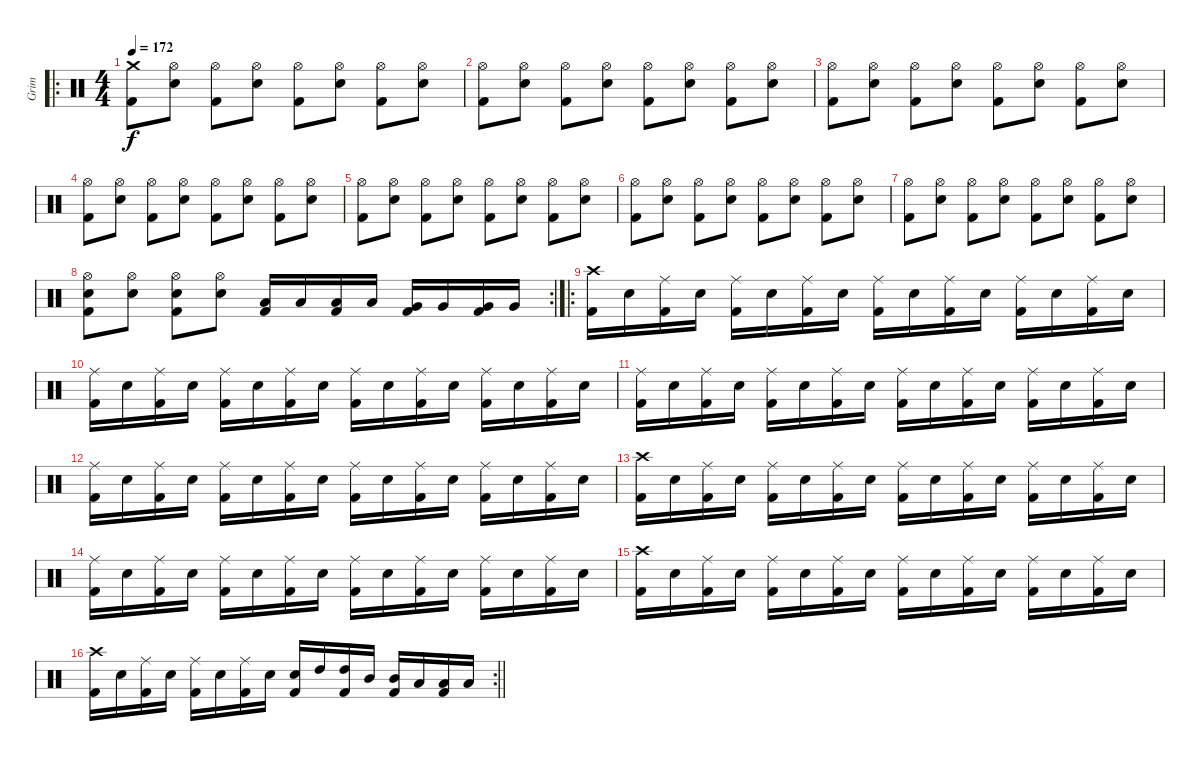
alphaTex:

\track ("Grim" "Grim") {instrument percussion}
\staff {score}
\articulation defaults
\ro
\ts (4 4)
\tempo 172
\clef neutral
\ks c
("Crash medium (hit)" "Kick (hit) 2").8{dy f} ("Hi-Hat (open)" "Electric Snare (hit)").8 ("Hi-Hat (open)" "Kick (hit) 2").8 ("Hi-Hat (open)" "Electric Snare (hit)").8 ("Hi-Hat (open)" "Kick (hit) 2").8 ("Hi-Hat (open)" "Electric Snare (hit)").8 ("Hi-Hat (open)" "Kick (hit) 2").8 ("Hi-Hat (open)" "Electric Snare (hit)").8 |
("Hi-Hat (open)" "Kick (hit) 2").8 ("Hi-Hat (open)" "Electric Snare (hit)").8 ("Hi-Hat (open)" "Kick (hit) 2").8 ("Hi-Hat (open)" "Electric Snare (hit)").8 ("Hi-Hat (open)" "Kick (hit) 2").8 ("Hi-Hat (open)" "Electric Snare (hit)").8 ("Hi-Hat (open)" "Kick (hit) 2").8 ("Hi-Hat (open)" "Electric Snare (hit)").8 |
("Hi-Hat (open)" "Kick (hit) 2").8 ("Hi-Hat (open)" "Electric Snare (hit)").8 ("Hi-Hat (open)" "Kick (hit) 2").8 ("Hi-Hat (open)" "Electric Snare (hit)").8 ("Hi-Hat (open)" "Kick (hit) 2").8 ("Hi-Hat (open)" "Electric Snare (hit)").8 ("Hi-Hat (open)" "Kick (hit) 2").8 ("Hi-Hat (open)" "Electric Snare (hit)").8 |
("Hi-Hat (open)" "Kick (hit) 2").8 ("Hi-Hat (open)" "Electric Snare (hit)").8 ("Hi-Hat (open)" "Kick (hit) 2").8 ("Hi-Hat (open)" "Electric Snare (hit)").8 ("Hi-Hat (open)" "Kick (hit) 2").8 ("Hi-Hat (open)" "Electric Snare (hit)").8 ("Hi-Hat (open)" "Kick (hit) 2").8 ("Hi-Hat (open)" "Electric Snare (hit)").8 |
("Hi-Hat (open)" "Kick (hit) 2").8 ("Hi-Hat (open)" "Electric Snare (hit)").8 ("Hi-Hat (open)" "Kick (hit) 2").8 ("Hi-Hat (open)" "Electric Snare (hit)").8 ("Hi-Hat (open)" "Kick (hit) 2").8 ("Hi-Hat (open)" "Electric Snare (hit)").8 ("Hi-Hat (open)" "Kick (hit) 2").8 ("Hi-Hat (open)" "Electric Snare (hit)").8 |
("Hi-Hat (open)" "Kick (hit) 2").8 ("Hi-Hat (open)" "Electric Snare (hit)").8 ("Hi-Hat (open)" "Kick (hit) 2").8 ("Hi-Hat (open)" "Electric Snare (hit)").8 ("Hi-Hat (open)" "Kick (hit) 2").8 ("Hi-Hat (open)" "Electric Snare (hit)").8 ("Hi-Hat (open)" "Kick (hit) 2").8 ("Hi-Hat (open)" "Electric Snare (hit)").8 |
("Hi-Hat (open)" "Kick (hit) 2").8 ("Hi-Hat (open)" "Electric Snare (hit)").8 ("Hi-Hat (open)" "Kick (hit) 2").8 ("Hi-Hat (open)" "Electric Snare (hit)").8 ("Hi-Hat (open)" "Kick (hit) 2").8 ("Hi-Hat (open)" "Electric Snare (hit)").8 ("Hi-Hat (open)" "Kick (hit) 2").8 ("Hi-Hat (open)" "Electric Snare (hit)").8 |
\rc 2
("Hi-Hat (open)" "Electric Snare (hit)" "Kick (hit) 2").8 ("Hi-Hat (open)" "Electric Snare (hit)").8 ("Hi-Hat (open)" "Electric Snare (hit)" "Kick (hit) 2").8 ("Hi-Hat (open)" "Electric Snare (hit)").8 ("Low Tom (hit)" "Kick (hit) 2").16 "Low Tom (hit)".16 ("Low Tom (hit)" "Kick (hit) 2").16 "Low Tom (hit)".16 ("Very Low Tom (hit)" "Kick (hit) 2").16 "Very Low Tom (hit)".16 ("Very Low Tom (hit)" "Kick (hit) 2").16 "Very Low Tom (hit)".16 |
\ro
("Crash high (hit)" "Kick (hit) 2").16 "Electric Snare (hit)".16 ("Ride (middle)" "Kick (hit) 2").16 "Electric Snare (hit)".16 ("Ride (middle)" "Kick (hit) 2").16 "Electric Snare (hit)".16 ("Ride (middle)" "Kick (hit) 2").16 "Electric Snare (hit)".16 ("Ride (middle)" "Kick (hit) 2").16 "Electric Snare (hit)".16 ("Ride (middle)" "Kick (hit) 2").16 "Electric Snare (hit)".16 ("Ride (middle)" "Kick (hit) 2").16 "Electric Snare (hit)".16 ("Ride (middle)" "Kick (hit) 2").16 "Electric Snare (hit)".16 |
("Ride (middle)" "Kick (hit) 2").16 "Electric Snare (hit)".16 ("Ride (middle)" "Kick (hit) 2").16 "Electric Snare (hit)".16 ("Ride (middle)" "Kick (hit) 2").16 "Electric Snare (hit)".16 ("Ride (middle)" "Kick (hit) 2").16 "Electric Snare (hit)".16 ("Ride (middle)" "Kick (hit) 2").16 "Electric Snare (hit)".16 ("Ride (middle)" "Kick (hit) 2").16 "Electric Snare (hit)".16 ("Ride (middle)" "Kick (hit) 2").16 "Electric Snare (hit)".16 ("Ride (middle)" "Kick (hit) 2").16 "Electric Snare (hit)".16 |
("Ride (middle)" "Kick (hit) 2").16 "Electric Snare (hit)".16 ("Ride (middle)" "Kick (hit) 2").16 "Electric Snare (hit)".16 ("Ride (middle)" "Kick (hit) 2").16 "Electric Snare (hit)".16 ("Ride (middle)" "Kick (hit) 2").16 "Electric Snare (hit)".16 ("Ride (middle)" "Kick (hit) 2").16 "Electric Snare (hit)".16 ("Ride (middle)" "Kick (hit) 2").16 "Electric Snare (hit)".16 ("Ride (middle)" "Kick (hit) 2").16 "Electric Snare (hit)".16 ("Ride (middle)" "Kick (hit) 2").16 "Electric Snare (hit)".16 |
("Ride (middle)" "Kick (hit) 2").16 "Electric Snare (hit)".16 ("Ride (middle)" "Kick (hit) 2").16 "Electric Snare (hit)".16 ("Ride (middle)" "Kick (hit) 2").16 "Electric Snare (hit)".16 ("Ride (middle)" "Kick (hit) 2").16 "Electric Snare (hit)".16 ("Ride (middle)" "Kick (hit) 2").16 "Electric Snare (hit)".16 ("Ride (middle)" "Kick (hit) 2").16 "Electric Snare (hit)".16 ("Ride (middle)" "Kick (hit) 2").16 "Electric Snare (hit)".16 ("Ride (middle)" "Kick (hit) 2").16 "Electric Snare (hit)".16 |
("Crash high (hit)" "Kick (hit) 2").16 "Electric Snare (hit)".16 ("Ride (middle)" "Kick (hit) 2").16 "Electric Snare (hit)".16 ("Ride (middle)" "Kick (hit) 2").16 "Electric Snare (hit)".16 ("Ride (middle)" "Kick (hit) 2").16 "Electric Snare (hit)".16 ("Ride (middle)" "Kick (hit) 2").16 "Electric Snare (hit)".16 ("Ride (middle)" "Kick (hit) 2").16 "Electric Snare (hit)".16 ("Ride (middle)" "Kick (hit) 2").16 "Electric Snare (hit)".16 ("Ride (middle)" "Kick (hit) 2").16 "Electric Snare (hit)".16 |
("Ride (middle)" "Kick (hit) 2").16 "Electric Snare (hit)".16 ("Ride (middle)" "Kick (hit) 2").16 "Electric Snare (hit)".16 ("Ride (middle)" "Kick (hit) 2").16 "Electric Snare (hit)".16 ("Ride (middle)" "Kick (hit) 2").16 "Electric Snare (hit)".16 ("Ride (middle)" "Kick (hit) 2").16 "Electric Snare (hit)".16 ("Ride (middle)" "Kick (hit) 2").16 "Electric Snare (hit)".16 ("Ride (middle)" "Kick (hit) 2").16 "Electric Snare (hit)".16 ("Ride (middle)" "Kick (hit) 2").16 "Electric Snare (hit)".16 |
("Crash high (hit)" "Kick (hit) 2").16 "Electric Snare (hit)".16 ("Ride (middle)" "Kick (hit) 2").16 "Electric Snare (hit)".16 ("Ride (middle)" "Kick (hit) 2").16 "Electric Snare (hit)".16 ("Ride (middle)" "Kick (hit) 2").16 "Electric Snare (hit)".16 ("Ride (middle)" "Kick (hit) 2").16 "Electric Snare (hit)".16 ("Ride (middle)" "Kick (hit) 2").16 "Electric Snare (hit)".16 ("Ride (middle)" "Kick (hit) 2").16 "Electric Snare (hit)".16 ("Ride (middle)" "Kick (hit) 2").16 "Electric Snare (hit)".16 |
\rc 2
\barLineRight lightlight
("Crash high (hit)" "Kick (hit) 2").16 "Electric Snare (hit)".16 ("Ride (middle)" "Kick (hit) 2").16 "Electric Snare (hit)".16 ("Ride (middle)" "Kick (hit) 2").16 "Electric Snare (hit)".16 ("Ride (middle)" "Kick (hit) 2").16 "Electric Snare (hit)".16 ("Electric Snare (hit)" "Kick (hit) 2").16 "High Tom (hit)".16 ("High Tom (hit)" "Kick (hit) 2").16 "Mid Tom (hit)".16 ("Mid Tom (hit)" "Kick (hit) 2").16 "Low Tom (hit)".16 ("Low Tom (hit)" "Kick (hit) 2").16 "Low Tom (hit)".16
